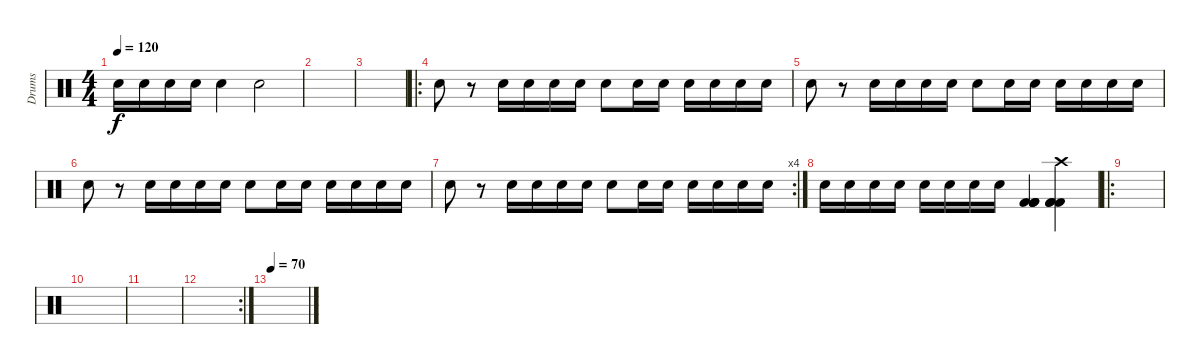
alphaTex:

\track ("Drums" "Drums") {instrument percussion}
\staff {score}
\articulation defaults
\ts (4 4)
\tempo 120
\clef neutral
\ks c "Snare (hit) 2".16{dy f} "Snare (hit) 2".16 "Snare (hit) 2".16 "Snare (hit) 2".16 "Snare (hit) 2".4 "Snare (hit) 2".2
|
|
|
\ro "Snare (hit) 2".8
r.8 "Snare (hit) 2".16 "Snare (hit) 2".16 "Snare (hit) 2".16 "Snare (hit) 2".16 "Snare (hit) 2".8 "Snare (hit) 2".16 "Snare (hit) 2".16 "Snare (hit) 2".16 "Snare (hit) 2".16 "Snare (hit) 2".16 "Snare (hit) 2".16 |
"Snare (hit) 2".8 r.8 "Snare (hit) 2".16 "Snare (hit) 2".16 "Snare (hit) 2".16 "Snare (hit) 2".16 "Snare (hit) 2".8 "Snare (hit) 2".16 "Snare (hit) 2".16 "Snare (hit) 2".16 "Snare (hit) 2".16 "Snare (hit) 2".16 "Snare (hit) 2".16 |
"Snare (hit) 2".8 r.8 "Snare (hit) 2".16 "Snare (hit) 2".16 "Snare (hit) 2".16 "Snare (hit) 2".16 "Snare (hit) 2".8 "Snare (hit) 2".16 "Snare (hit) 2".16 "Snare (hit) 2".16 "Snare (hit) 2".16 "Snare (hit) 2".16 "Snare (hit) 2".16 |
\rc 4 "Snare (hit) 2".8
r.8 "Snare (hit) 2".16 "Snare (hit) 2".16 "Snare (hit) 2".16 "Snare (hit) 2".16 "Snare (hit) 2".8 "Snare (hit) 2".16 "Snare (hit) 2".16 "Snare (hit) 2".16 "Snare (hit) 2".16 "Snare (hit) 2".16 "Snare (hit) 2".16 |
"Snare (hit) 2".16 "Snare (hit) 2".16 "Snare (hit) 2".16 "Snare (hit) 2".16 "Snare (hit) 2".16 "Snare (hit) 2".16 "Snare (hit) 2".16 "Snare (hit) 2".16 ("Kick (hit) 2" "Kick (hit) 2" "Kick (hit) 2" "Kick (hit) 2").4 ("Crash high (hit)" "Kick (hit) 2" "Kick (hit) 2" "Kick (hit) 2").4 |
\ro
|
|
|
\rc 2
|
\tempo 70
